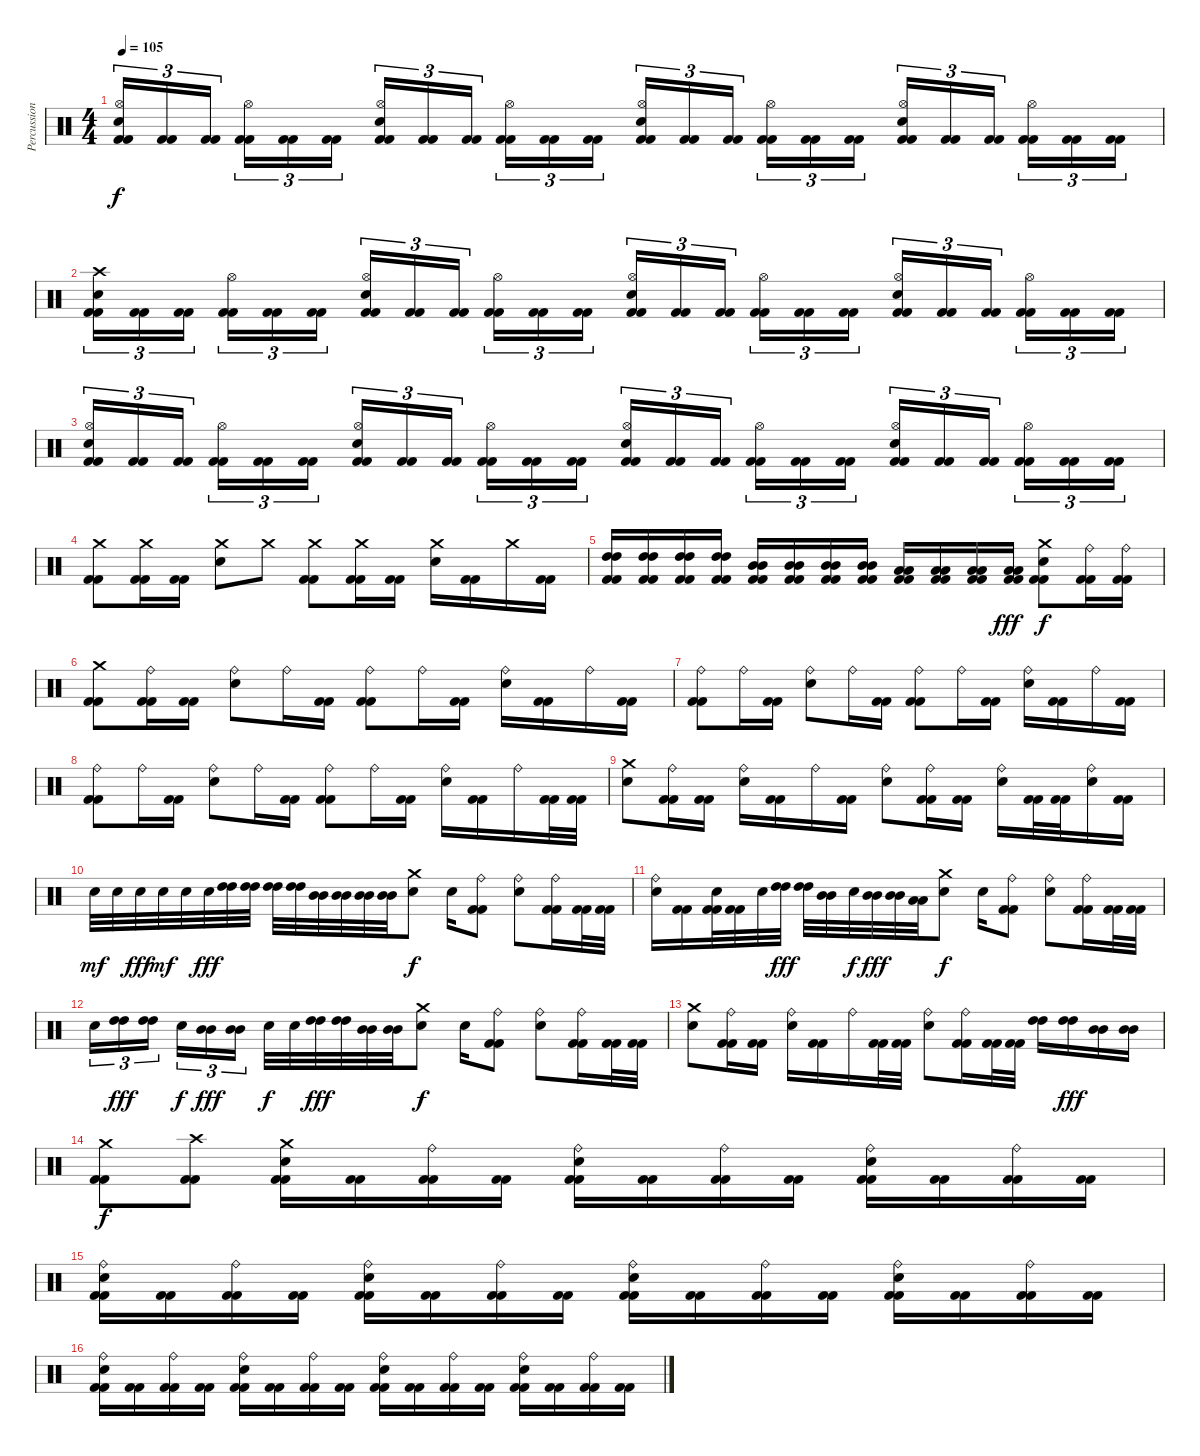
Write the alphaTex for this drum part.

\track ("Percussion" "Percussion") {instrument percussion}
\staff {score}
\articulation defaults
\ts (4 4)
\tempo 105
\clef neutral
\ks c
("Kick (hit) 2" "Kick (hit) 2" "Hi-Hat (open)" "Electric Snare (hit)").16{tu (3 2) dy f} ("Kick (hit) 2" "Kick (hit) 2").16{tu (3 2)} ("Kick (hit) 2" "Kick (hit) 2").16{tu (3 2)} ("Kick (hit) 2" "Kick (hit) 2" "Hi-Hat (open)").16{tu (3 2)} ("Kick (hit) 2" "Kick (hit) 2").16{tu (3 2)} ("Kick (hit) 2" "Kick (hit) 2").16{tu (3 2)} ("Kick (hit) 2" "Kick (hit) 2" "Hi-Hat (open)" "Electric Snare (hit)").16{tu (3 2)} ("Kick (hit) 2" "Kick (hit) 2").16{tu (3 2)} ("Kick (hit) 2" "Kick (hit) 2").16{tu (3 2)} ("Kick (hit) 2" "Kick (hit) 2" "Hi-Hat (open)").16{tu (3 2)} ("Kick (hit) 2" "Kick (hit) 2").16{tu (3 2)} ("Kick (hit) 2" "Kick (hit) 2").16{tu (3 2)} ("Kick (hit) 2" "Kick (hit) 2" "Hi-Hat (open)" "Electric Snare (hit)").16{tu (3 2)} ("Kick (hit) 2" "Kick (hit) 2").16{tu (3 2)} ("Kick (hit) 2" "Kick (hit) 2").16{tu (3 2)} ("Kick (hit) 2" "Kick (hit) 2" "Hi-Hat (open)").16{tu (3 2)} ("Kick (hit) 2" "Kick (hit) 2").16{tu (3 2)} ("Kick (hit) 2" "Kick (hit) 2").16{tu (3 2)} ("Kick (hit) 2" "Kick (hit) 2" "Hi-Hat (open)" "Electric Snare (hit)").16{tu (3 2)} ("Kick (hit) 2" "Kick (hit) 2").16{tu (3 2)} ("Kick (hit) 2" "Kick (hit) 2").16{tu (3 2)} ("Kick (hit) 2" "Kick (hit) 2" "Hi-Hat (open)").16{tu (3 2)} ("Kick (hit) 2" "Kick (hit) 2").16{tu (3 2)} ("Kick (hit) 2" "Kick (hit) 2").16{tu (3 2)} |
("Kick (hit) 2" "Kick (hit) 2" "Crash high (hit)" "Electric Snare (hit)").16{tu (3 2)} ("Kick (hit) 2" "Kick (hit) 2").16{tu (3 2)} ("Kick (hit) 2" "Kick (hit) 2").16{tu (3 2)} ("Kick (hit) 2" "Kick (hit) 2" "Hi-Hat (open)").16{tu (3 2)} ("Kick (hit) 2" "Kick (hit) 2").16{tu (3 2)} ("Kick (hit) 2" "Kick (hit) 2").16{tu (3 2)} ("Kick (hit) 2" "Kick (hit) 2" "Hi-Hat (open)" "Electric Snare (hit)").16{tu (3 2)} ("Kick (hit) 2" "Kick (hit) 2").16{tu (3 2)} ("Kick (hit) 2" "Kick (hit) 2").16{tu (3 2)} ("Kick (hit) 2" "Kick (hit) 2" "Hi-Hat (open)").16{tu (3 2)} ("Kick (hit) 2" "Kick (hit) 2").16{tu (3 2)} ("Kick (hit) 2" "Kick (hit) 2").16{tu (3 2)} ("Kick (hit) 2" "Kick (hit) 2" "Hi-Hat (open)" "Electric Snare (hit)").16{tu (3 2)} ("Kick (hit) 2" "Kick (hit) 2").16{tu (3 2)} ("Kick (hit) 2" "Kick (hit) 2").16{tu (3 2)} ("Kick (hit) 2" "Kick (hit) 2" "Hi-Hat (open)").16{tu (3 2)} ("Kick (hit) 2" "Kick (hit) 2").16{tu (3 2)} ("Kick (hit) 2" "Kick (hit) 2").16{tu (3 2)} ("Kick (hit) 2" "Kick (hit) 2" "Hi-Hat (open)" "Electric Snare (hit)").16{tu (3 2)} ("Kick (hit) 2" "Kick (hit) 2").16{tu (3 2)} ("Kick (hit) 2" "Kick (hit) 2").16{tu (3 2)} ("Kick (hit) 2" "Kick (hit) 2" "Hi-Hat (open)").16{tu (3 2)} ("Kick (hit) 2" "Kick (hit) 2").16{tu (3 2)} ("Kick (hit) 2" "Kick (hit) 2").16{tu (3 2)} |
("Kick (hit) 2" "Kick (hit) 2" "Hi-Hat (open)" "Electric Snare (hit)").16{tu (3 2)} ("Kick (hit) 2" "Kick (hit) 2").16{tu (3 2)} ("Kick (hit) 2" "Kick (hit) 2").16{tu (3 2)} ("Kick (hit) 2" "Kick (hit) 2" "Hi-Hat (open)").16{tu (3 2)} ("Kick (hit) 2" "Kick (hit) 2").16{tu (3 2)} ("Kick (hit) 2" "Kick (hit) 2").16{tu (3 2)} ("Kick (hit) 2" "Kick (hit) 2" "Hi-Hat (open)" "Electric Snare (hit)").16{tu (3 2)} ("Kick (hit) 2" "Kick (hit) 2").16{tu (3 2)} ("Kick (hit) 2" "Kick (hit) 2").16{tu (3 2)} ("Kick (hit) 2" "Kick (hit) 2" "Hi-Hat (open)").16{tu (3 2)} ("Kick (hit) 2" "Kick (hit) 2").16{tu (3 2)} ("Kick (hit) 2" "Kick (hit) 2").16{tu (3 2)} ("Kick (hit) 2" "Kick (hit) 2" "Hi-Hat (open)" "Electric Snare (hit)").16{tu (3 2)} ("Kick (hit) 2" "Kick (hit) 2").16{tu (3 2)} ("Kick (hit) 2" "Kick (hit) 2").16{tu (3 2)} ("Kick (hit) 2" "Kick (hit) 2" "Hi-Hat (open)").16{tu (3 2)} ("Kick (hit) 2" "Kick (hit) 2").16{tu (3 2)} ("Kick (hit) 2" "Kick (hit) 2").16{tu (3 2)} ("Kick (hit) 2" "Kick (hit) 2" "Hi-Hat (open)" "Electric Snare (hit)").16{tu (3 2)} ("Kick (hit) 2" "Kick (hit) 2").16{tu (3 2)} ("Kick (hit) 2" "Kick (hit) 2").16{tu (3 2)} ("Kick (hit) 2" "Kick (hit) 2" "Hi-Hat (open)").16{tu (3 2)} ("Kick (hit) 2" "Kick (hit) 2").16{tu (3 2)} ("Kick (hit) 2" "Kick (hit) 2").16{tu (3 2)} |
("Kick (hit) 2" "Kick (hit) 2" "Crash medium (hit)").8 ("Kick (hit) 2" "Kick (hit) 2" "Crash medium (hit)").16 ("Kick (hit) 2" "Kick (hit) 2").16 ("Crash medium (hit)" "Electric Snare (hit)").8 "Crash medium (hit)".8 ("Kick (hit) 2" "Kick (hit) 2" "Crash medium (hit)").8 ("Kick (hit) 2" "Kick (hit) 2" "Crash medium (hit)").16 ("Kick (hit) 2" "Kick (hit) 2").16 ("Crash medium (hit)" "Electric Snare (hit)").16 ("Kick (hit) 2" "Kick (hit) 2").16 "Crash medium (hit)".16 ("Kick (hit) 2" "Kick (hit) 2").16 |
("Kick (hit) 2" "Kick (hit) 2" "High Tom (hit)" "High Tom (hit)").16 ("Kick (hit) 2" "Kick (hit) 2" "High Tom (hit)" "High Tom (hit)").16 ("Kick (hit) 2" "Kick (hit) 2" "High Tom (hit)" "High Tom (hit)").16 ("Kick (hit) 2" "Kick (hit) 2" "High Tom (hit)" "High Tom (hit)").16 ("Kick (hit) 2" "Kick (hit) 2" "Mid Tom (hit)" "Mid Tom (hit)").16 ("Kick (hit) 2" "Kick (hit) 2" "Mid Tom (hit)" "Mid Tom (hit)").16 ("Kick (hit) 2" "Kick (hit) 2" "Mid Tom (hit)" "Mid Tom (hit)").16 ("Kick (hit) 2" "Kick (hit) 2" "Mid Tom (hit)" "Mid Tom (hit)").16 ("Kick (hit) 2" "Kick (hit) 2" "Low Tom (hit)" "Low Tom (hit)").16 ("Kick (hit) 2" "Kick (hit) 2" "Low Tom (hit)" "Low Tom (hit)").16 ("Kick (hit) 2" "Kick (hit) 2" "Low Tom (hit)" "Low Tom (hit)").16 ("Kick (hit) 2" "Kick (hit) 2" "Low Tom (hit)" "Low Tom (hit)").16{dy fff} ("Kick (hit) 2" "Kick (hit) 2" "Crash medium (hit)" "Electric Snare (hit)").8{dy f} ("Kick (hit) 2" "Kick (hit) 2" "Ride (bell)").16 ("Kick (hit) 2" "Kick (hit) 2" "Ride (bell)").16 |
("Kick (hit) 2" "Kick (hit) 2" "Crash medium (hit)").8 ("Kick (hit) 2" "Kick (hit) 2" "Ride (bell)").16 ("Kick (hit) 2" "Kick (hit) 2").16 ("Ride (bell)" "Electric Snare (hit)").8 "Ride (bell)".16 ("Kick (hit) 2" "Kick (hit) 2").16 ("Kick (hit) 2" "Kick (hit) 2" "Ride (bell)").8 "Ride (bell)".16 ("Kick (hit) 2" "Kick (hit) 2").16 ("Ride (bell)" "Electric Snare (hit)").16 ("Kick (hit) 2" "Kick (hit) 2").16 "Ride (bell)".16 ("Kick (hit) 2" "Kick (hit) 2").16 |
("Kick (hit) 2" "Kick (hit) 2" "Ride (bell)").8 "Ride (bell)".16 ("Kick (hit) 2" "Kick (hit) 2").16 ("Ride (bell)" "Electric Snare (hit)").8 "Ride (bell)".16 ("Kick (hit) 2" "Kick (hit) 2").16 ("Kick (hit) 2" "Kick (hit) 2" "Ride (bell)").8 "Ride (bell)".16 ("Kick (hit) 2" "Kick (hit) 2").16 ("Ride (bell)" "Electric Snare (hit)").16 ("Kick (hit) 2" "Kick (hit) 2").16 "Ride (bell)".16 ("Kick (hit) 2" "Kick (hit) 2").16 |
("Kick (hit) 2" "Kick (hit) 2" "Ride (bell)").8 "Ride (bell)".16 ("Kick (hit) 2" "Kick (hit) 2").16 ("Ride (bell)" "Electric Snare (hit)").8 "Ride (bell)".16 ("Kick (hit) 2" "Kick (hit) 2").16 ("Kick (hit) 2" "Kick (hit) 2" "Ride (bell)").8 "Ride (bell)".16 ("Kick (hit) 2" "Kick (hit) 2").16 ("Ride (bell)" "Electric Snare (hit)").16 ("Kick (hit) 2" "Kick (hit) 2").16 "Ride (bell)".16 ("Kick (hit) 2" "Kick (hit) 2").32 ("Kick (hit) 2" "Kick (hit) 2").32 |
("Electric Snare (hit)" "Crash medium (hit)").8 ("Kick (hit) 2" "Kick (hit) 2" "Ride (bell)").16 ("Kick (hit) 2" "Kick (hit) 2").16 ("Electric Snare (hit)" "Ride (bell)").16 ("Kick (hit) 2" "Kick (hit) 2").16 "Ride (bell)".16 ("Kick (hit) 2" "Kick (hit) 2").16 ("Electric Snare (hit)" "Ride (bell)").8 ("Kick (hit) 2" "Kick (hit) 2" "Ride (bell)").16 ("Kick (hit) 2" "Kick (hit) 2").16 ("Electric Snare (hit)" "Ride (bell)").16 ("Kick (hit) 2" "Kick (hit) 2").32 ("Kick (hit) 2" "Kick (hit) 2").32 ("Electric Snare (hit)" "Ride (bell)").16 ("Kick (hit) 2" "Kick (hit) 2").16 |
"Electric Snare (hit)".32{dy mf} "Electric Snare (hit)".32 "Electric Snare (hit)".32{dy fff} "Electric Snare (hit)".32{dy mf} "Electric Snare (hit)".32 "Electric Snare (hit)".32{dy fff} ("High Tom (hit)" "High Tom (hit)").32 ("High Tom (hit)" "High Tom (hit)").32 ("High Tom (hit)" "High Tom (hit)").32 ("High Tom (hit)" "High Tom (hit)").32 ("Mid Tom (hit)" "Mid Tom (hit)").32 ("Mid Tom (hit)" "Mid Tom (hit)").32 ("Mid Tom (hit)" "Mid Tom (hit)").32 ("Mid Tom (hit)" "Mid Tom (hit)").32 ("Electric Snare (hit)" "Crash medium (hit)").8{dy f} "Electric Snare (hit)".16 ("Kick (hit) 2" "Kick (hit) 2" "Ride (bell)").8 ("Electric Snare (hit)" "Ride (bell)").8 ("Kick (hit) 2" "Kick (hit) 2" "Ride (bell)").16 ("Kick (hit) 2" "Kick (hit) 2").32 ("Kick (hit) 2" "Kick (hit) 2").32 |
("Ride (bell)" "Electric Snare (hit)").16 ("Kick (hit) 2" "Kick (hit) 2").16 ("Kick (hit) 2" "Kick (hit) 2" "Electric Snare (hit)").32 ("Kick (hit) 2" "Kick (hit) 2").32 "Electric Snare (hit)".32 ("High Tom (hit)" "High Tom (hit)").32{dy fff} ("High Tom (hit)" "High Tom (hit)").32 ("Mid Tom (hit)" "Mid Tom (hit)").32 "Electric Snare (hit)".32{dy f} ("Mid Tom (hit)" "Mid Tom (hit)").32{dy fff} ("Mid Tom (hit)" "Mid Tom (hit)").32 ("Low Tom (hit)" "Low Tom (hit)").32 ("Electric Snare (hit)" "Crash medium (hit)").8{dy f} "Electric Snare (hit)".16 ("Kick (hit) 2" "Kick (hit) 2" "Ride (bell)").8 ("Electric Snare (hit)" "Ride (bell)").8 ("Kick (hit) 2" "Kick (hit) 2" "Ride (bell)").16 ("Kick (hit) 2" "Kick (hit) 2").32 ("Kick (hit) 2" "Kick (hit) 2").32 |
"Electric Snare (hit)".16{tu (3 2)} ("High Tom (hit)" "High Tom (hit)").16{tu (3 2) dy fff} ("High Tom (hit)" "High Tom (hit)").16{tu (3 2)} "Electric Snare (hit)".16{tu (3 2) dy f} ("Mid Tom (hit)" "Mid Tom (hit)").16{tu (3 2) dy fff} ("Mid Tom (hit)" "Mid Tom (hit)").16{tu (3 2)} "Electric Snare (hit)".32{dy f} "Electric Snare (hit)".32 ("High Tom (hit)" "High Tom (hit)").32{dy fff} ("High Tom (hit)" "High Tom (hit)").32 ("Mid Tom (hit)" "Mid Tom (hit)").32 ("Mid Tom (hit)" "Mid Tom (hit)").32 ("Electric Snare (hit)" "Crash medium (hit)").8{dy f} "Electric Snare (hit)".16 ("Kick (hit) 2" "Kick (hit) 2" "Ride (bell)").8 ("Electric Snare (hit)" "Ride (bell)").8 ("Kick (hit) 2" "Kick (hit) 2" "Ride (bell)").16 ("Kick (hit) 2" "Kick (hit) 2").32 ("Kick (hit) 2" "Kick (hit) 2").32 |
("Electric Snare (hit)" "Crash medium (hit)").8 ("Kick (hit) 2" "Kick (hit) 2" "Ride (bell)").16 ("Kick (hit) 2" "Kick (hit) 2").16 ("Electric Snare (hit)" "Ride (bell)").16 ("Kick (hit) 2" "Kick (hit) 2").16 "Ride (bell)".16 ("Kick (hit) 2" "Kick (hit) 2").32 ("Kick (hit) 2" "Kick (hit) 2").32 ("Electric Snare (hit)" "Ride (bell)").8 ("Kick (hit) 2" "Kick (hit) 2" "Ride (bell)").16 ("Kick (hit) 2" "Kick (hit) 2").32 ("Kick (hit) 2" "Kick (hit) 2").32 ("High Tom (hit)" "High Tom (hit)").16 ("High Tom (hit)" "High Tom (hit)").16{dy fff} ("Mid Tom (hit)" "Mid Tom (hit)").16 ("Mid Tom (hit)" "Mid Tom (hit)").16 |
("Kick (hit) 2" "Kick (hit) 2" "Crash medium (hit)").8{dy f} ("Kick (hit) 2" "Kick (hit) 2" "Crash high (hit)").8 ("Crash medium (hit)" "Electric Snare (hit)" "Kick (hit) 2" "Kick (hit) 2").16 ("Kick (hit) 2" "Kick (hit) 2").16 ("Ride (bell)" "Kick (hit) 2" "Kick (hit) 2").16 ("Kick (hit) 2" "Kick (hit) 2").16 ("Electric Snare (hit)" "Ride (bell)" "Kick (hit) 2" "Kick (hit) 2").16 ("Kick (hit) 2" "Kick (hit) 2").16 ("Ride (bell)" "Kick (hit) 2" "Kick (hit) 2").16 ("Kick (hit) 2" "Kick (hit) 2").16 ("Electric Snare (hit)" "Ride (bell)" "Kick (hit) 2" "Kick (hit) 2").16 ("Kick (hit) 2" "Kick (hit) 2").16 ("Ride (bell)" "Kick (hit) 2" "Kick (hit) 2").16 ("Kick (hit) 2" "Kick (hit) 2").16 |
("Electric Snare (hit)" "Ride (bell)" "Kick (hit) 2" "Kick (hit) 2").16 ("Kick (hit) 2" "Kick (hit) 2").16 ("Ride (bell)" "Kick (hit) 2" "Kick (hit) 2").16 ("Kick (hit) 2" "Kick (hit) 2").16 ("Electric Snare (hit)" "Ride (bell)" "Kick (hit) 2" "Kick (hit) 2").16 ("Kick (hit) 2" "Kick (hit) 2").16 ("Ride (bell)" "Kick (hit) 2" "Kick (hit) 2").16 ("Kick (hit) 2" "Kick (hit) 2").16 ("Electric Snare (hit)" "Ride (bell)" "Kick (hit) 2" "Kick (hit) 2").16 ("Kick (hit) 2" "Kick (hit) 2").16 ("Ride (bell)" "Kick (hit) 2" "Kick (hit) 2").16 ("Kick (hit) 2" "Kick (hit) 2").16 ("Electric Snare (hit)" "Ride (bell)" "Kick (hit) 2" "Kick (hit) 2").16 ("Kick (hit) 2" "Kick (hit) 2").16 ("Ride (bell)" "Kick (hit) 2" "Kick (hit) 2").16 ("Kick (hit) 2" "Kick (hit) 2").16 |
("Electric Snare (hit)" "Ride (bell)" "Kick (hit) 2" "Kick (hit) 2").16 ("Kick (hit) 2" "Kick (hit) 2").16 ("Ride (bell)" "Kick (hit) 2" "Kick (hit) 2").16 ("Kick (hit) 2" "Kick (hit) 2").16 ("Electric Snare (hit)" "Ride (bell)" "Kick (hit) 2" "Kick (hit) 2").16 ("Kick (hit) 2" "Kick (hit) 2").16 ("Ride (bell)" "Kick (hit) 2" "Kick (hit) 2").16 ("Kick (hit) 2" "Kick (hit) 2").16 ("Electric Snare (hit)" "Ride (bell)" "Kick (hit) 2" "Kick (hit) 2").16 ("Kick (hit) 2" "Kick (hit) 2").16 ("Ride (bell)" "Kick (hit) 2" "Kick (hit) 2").16 ("Kick (hit) 2" "Kick (hit) 2").16 ("Electric Snare (hit)" "Ride (bell)" "Kick (hit) 2" "Kick (hit) 2").16 ("Kick (hit) 2" "Kick (hit) 2").16 ("Ride (bell)" "Kick (hit) 2" "Kick (hit) 2").16 ("Kick (hit) 2" "Kick (hit) 2").16
